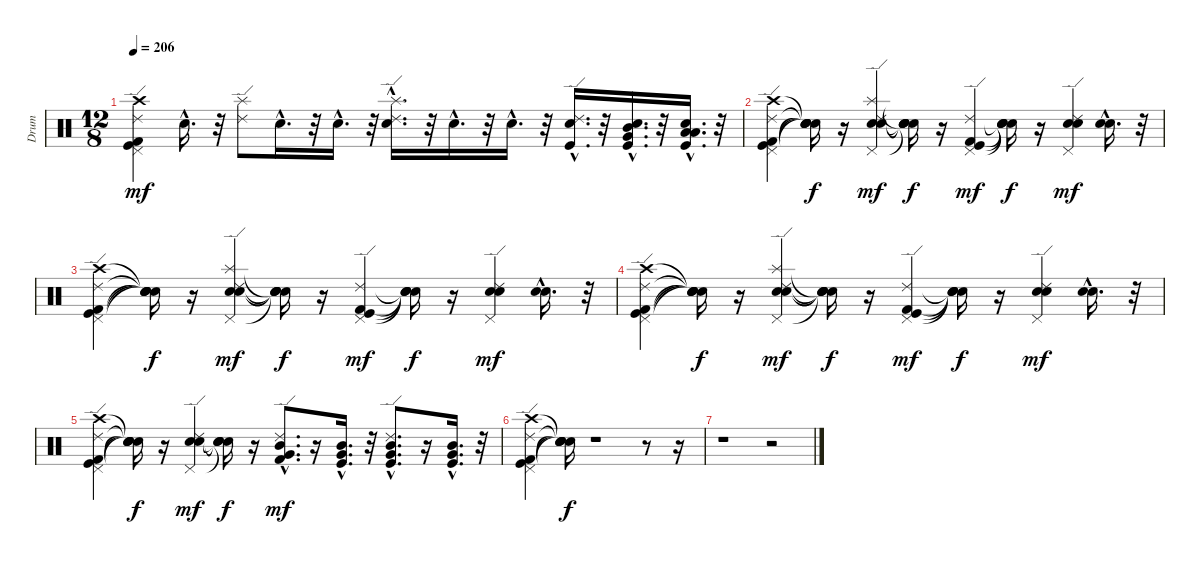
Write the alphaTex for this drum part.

\track ("Drum" "Drum") {instrument percussion}
\staff {score}
\articulation defaults
\ts (12 8)
\tempo 206
\clef neutral
\ks c
("Pedal Hi-Hat (hit)" "Kick (hit)" "Kick (hit) 2" "Ride (edge) 2" "Crash high (hit)").4{dy mf} "Snare (hit) 2"{hac}.16{d} r.32 ("Ride (edge) 2" "Splash (hit)").8 "Snare (hit) 2"{hac}.16{d} r.32 "Snare (hit) 2"{hac}.16{d} r.32 ("Ride (edge) 2"{hac} "Splash (hit)"{hac} "Electric Snare (hit)"{hac}).16{d} r.32 "Electric Snare (hit)"{hac}.16{d} r.32 "Electric Snare (hit)"{hac}.16{d} r.32 ("Ride (edge) 2"{hac} "Kick (hit)"{hac} "Snare (hit) 2"{hac}).16{d} r.32 ("Very Low Tom (hit)"{hac} "Mid Tom (hit)"{hac} "Kick (hit)"{hac} "Snare (hit) 2"{hac}).16{d} r.32 ("Low Floor Tom (hit)"{hac} "Low Tom (hit)"{hac} "Kick (hit)"{hac} "Snare (hit) 2"{hac}).16{d} r.32 |
("Pedal Hi-Hat (hit)" "Kick (hit)" "Kick (hit) 2" "Ride (edge) 2" "Crash high (hit)").4 ("Snare (hit)"{t} "Snare (hit)"{t} "Snare (hit)"{t} "Snare (hit)"{t} "Snare (hit)"{t}).16{dy f} r.16 ("Snare (hit) 2" "Electric Snare (hit)" "Pedal Hi-Hat (hit)" "Ride (edge) 2" "Splash (hit)").4{dy mf} ("Snare (hit)"{t} "Snare (hit)"{t} "Snare (hit)"{t} "Snare (hit)"{t} "Snare (hit)"{t}).16{dy f} r.16 ("Pedal Hi-Hat (hit)" "Kick (hit) 2" "Kick (hit)" "Ride (edge) 2").4{dy mf} ("Snare (hit)"{t} "Snare (hit)"{t} "Snare (hit)"{t} "Snare (hit)"{t}).16{dy f} r.16 ("Electric Snare (hit)" "Snare (hit) 2" "Pedal Hi-Hat (hit)" "Ride (edge) 2").4{dy mf} ("Electric Snare (hit)"{hac} "Snare (hit) 2"{hac}).16{d} r.32 |
("Crash high (hit)" "Ride (edge) 2" "Kick (hit) 2" "Kick (hit)" "Pedal Hi-Hat (hit)").4 ("Snare (hit)"{t} "Snare (hit)"{t} "Snare (hit)"{t} "Snare (hit)"{t} "Snare (hit)"{t}).16{dy f} r.16 ("Splash (hit)" "Ride (edge) 2" "Pedal Hi-Hat (hit)" "Electric Snare (hit)" "Snare (hit) 2").4{dy mf} ("Snare (hit)"{t} "Snare (hit)"{t} "Snare (hit)"{t} "Snare (hit)"{t} "Snare (hit)"{t}).16{dy f} r.16 ("Ride (edge) 2" "Kick (hit)" "Kick (hit) 2" "Pedal Hi-Hat (hit)").4{dy mf} ("Snare (hit)"{t} "Snare (hit)"{t} "Snare (hit)"{t} "Snare (hit)"{t}).16{dy f} r.16 ("Ride (edge) 2" "Pedal Hi-Hat (hit)" "Snare (hit) 2" "Electric Snare (hit)").4{dy mf} ("Snare (hit) 2"{hac} "Electric Snare (hit)"{hac}).16{d} r.32 |
("Pedal Hi-Hat (hit)" "Kick (hit)" "Kick (hit) 2" "Ride (edge) 2" "Crash high (hit)").4 ("Snare (hit)"{t} "Snare (hit)"{t} "Snare (hit)"{t} "Snare (hit)"{t} "Snare (hit)"{t}).16{dy f} r.16 ("Snare (hit) 2" "Electric Snare (hit)" "Pedal Hi-Hat (hit)" "Ride (edge) 2" "Splash (hit)").4{dy mf} ("Snare (hit)"{t} "Snare (hit)"{t} "Snare (hit)"{t} "Snare (hit)"{t} "Snare (hit)"{t}).16{dy f} r.16 ("Pedal Hi-Hat (hit)" "Kick (hit) 2" "Kick (hit)" "Ride (edge) 2").4{dy mf} ("Snare (hit)"{t} "Snare (hit)"{t} "Snare (hit)"{t} "Snare (hit)"{t}).16{dy f} r.16 ("Electric Snare (hit)" "Snare (hit) 2" "Pedal Hi-Hat (hit)" "Ride (edge) 2").4{dy mf} ("Electric Snare (hit)"{hac} "Snare (hit) 2"{hac}).16{d} r.32 |
("Pedal Hi-Hat (hit)" "Kick (hit)" "Kick (hit) 2" "Ride (edge) 2" "Crash high (hit)").4 ("Snare (hit)"{t} "Snare (hit)"{t} "Snare (hit)"{t} "Snare (hit)"{t} "Snare (hit)"{t}).16{dy f} r.16 ("Ride (edge) 2" "Pedal Hi-Hat (hit)" "Snare (hit) 2" "Electric Snare (hit)").4{dy mf} ("Snare (hit)"{t} "Snare (hit)"{t} "Snare (hit)"{t} "Snare (hit)"{t}).16{dy f} r.16 ("Ride (edge) 2"{hac} "Kick (hit) 2"{hac} "Very Low Tom (hit)"{hac} "Mid Tom (hit)"{hac}).8{d dy mf} r.16 ("Kick (hit)"{hac} "Very Low Tom (hit)"{hac} "Mid Tom (hit)"{hac}).16{d} r.32 ("Kick (hit)"{hac} "Ride (edge) 2"{hac} "Very Low Tom (hit)"{hac} "Mid Tom (hit)"{hac}).8{d} r.16 ("Kick (hit)"{hac} "Very Low Tom (hit)"{hac} "Mid Tom (hit)"{hac}).16{d} r.32 |
("Ride (edge) 2" "Kick (hit) 2" "Pedal Hi-Hat (hit)" "Crash high (hit)" "Kick (hit)").4 ("Snare (hit)"{t} "Snare (hit)"{t} "Snare (hit)"{t} "Snare (hit)"{t} "Snare (hit)"{t}).16{dy f} r.1 r.8 r.16 |
r.1 r.2
